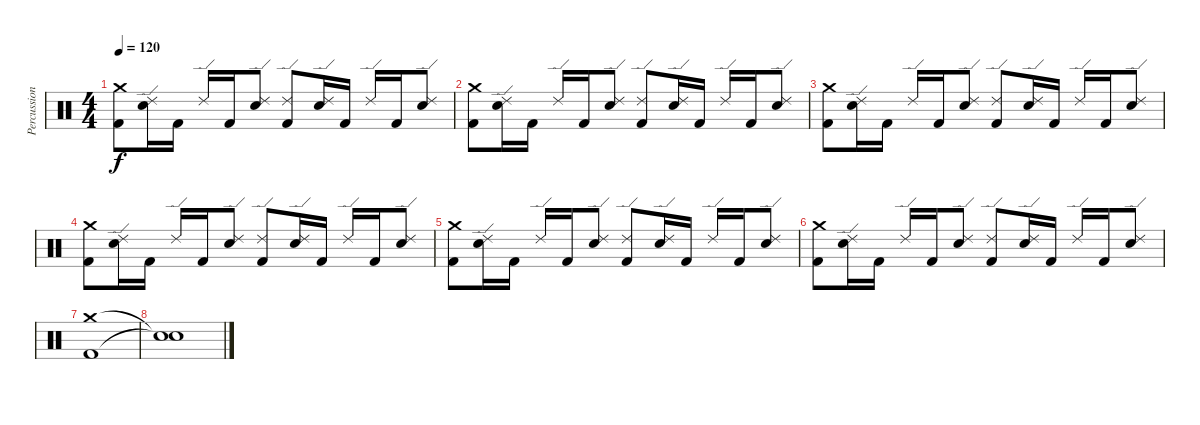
\track ("Percussions" "Percussion") {instrument percussion}
\staff {score}
\articulation defaults
\ts (4 4)
\tempo 120
\clef neutral
\ks c
("Crash medium (hit)" "Kick (hit) 2").8{dy f} ("Ride (edge) 2" "Snare (hit) 2").16 "Kick (hit) 2".16 "Ride (edge) 2".16 "Kick (hit) 2".16 ("Ride (edge) 2" "Snare (hit) 2").8 ("Ride (edge) 2" "Kick (hit) 2").8 ("Ride (edge) 2" "Snare (hit) 2").16 "Kick (hit) 2".16 "Ride (edge) 2".16 "Kick (hit) 2".16 ("Ride (edge) 2" "Snare (hit) 2").8 |
("Crash medium (hit)" "Kick (hit) 2").8 ("Ride (edge) 2" "Snare (hit) 2").16 "Kick (hit) 2".16 "Ride (edge) 2".16 "Kick (hit) 2".16 ("Ride (edge) 2" "Snare (hit) 2").8 ("Ride (edge) 2" "Kick (hit) 2").8 ("Ride (edge) 2" "Snare (hit) 2").16 "Kick (hit) 2".16 "Ride (edge) 2".16 "Kick (hit) 2".16 ("Ride (edge) 2" "Snare (hit) 2").8 |
("Crash medium (hit)" "Kick (hit) 2").8 ("Ride (edge) 2" "Snare (hit) 2").16 "Kick (hit) 2".16 "Ride (edge) 2".16 "Kick (hit) 2".16 ("Ride (edge) 2" "Snare (hit) 2").8 ("Ride (edge) 2" "Kick (hit) 2").8 ("Ride (edge) 2" "Snare (hit) 2").16 "Kick (hit) 2".16 "Ride (edge) 2".16 "Kick (hit) 2".16 ("Ride (edge) 2" "Snare (hit) 2").8 |
("Crash medium (hit)" "Kick (hit) 2").8 ("Ride (edge) 2" "Snare (hit) 2").16 "Kick (hit) 2".16 "Ride (edge) 2".16 "Kick (hit) 2".16 ("Ride (edge) 2" "Snare (hit) 2").8 ("Ride (edge) 2" "Kick (hit) 2").8 ("Ride (edge) 2" "Snare (hit) 2").16 "Kick (hit) 2".16 "Ride (edge) 2".16 "Kick (hit) 2".16 ("Ride (edge) 2" "Snare (hit) 2").8 |
("Crash medium (hit)" "Kick (hit) 2").8 ("Ride (edge) 2" "Snare (hit) 2").16 "Kick (hit) 2".16 "Ride (edge) 2".16 "Kick (hit) 2".16 ("Ride (edge) 2" "Snare (hit) 2").8 ("Ride (edge) 2" "Kick (hit) 2").8 ("Ride (edge) 2" "Snare (hit) 2").16 "Kick (hit) 2".16 "Ride (edge) 2".16 "Kick (hit) 2".16 ("Ride (edge) 2" "Snare (hit) 2").8 |
("Crash medium (hit)" "Kick (hit) 2").8 ("Ride (edge) 2" "Snare (hit) 2").16 "Kick (hit) 2".16 "Ride (edge) 2".16 "Kick (hit) 2".16 ("Ride (edge) 2" "Snare (hit) 2").8 ("Ride (edge) 2" "Kick (hit) 2").8 ("Ride (edge) 2" "Snare (hit) 2").16 "Kick (hit) 2".16 "Ride (edge) 2".16 "Kick (hit) 2".16 ("Ride (edge) 2" "Snare (hit) 2").8 |
("Crash medium (hit)" "Kick (hit) 2").1 |
("Snare (hit)"{t} "Snare (hit)"{t}).1
